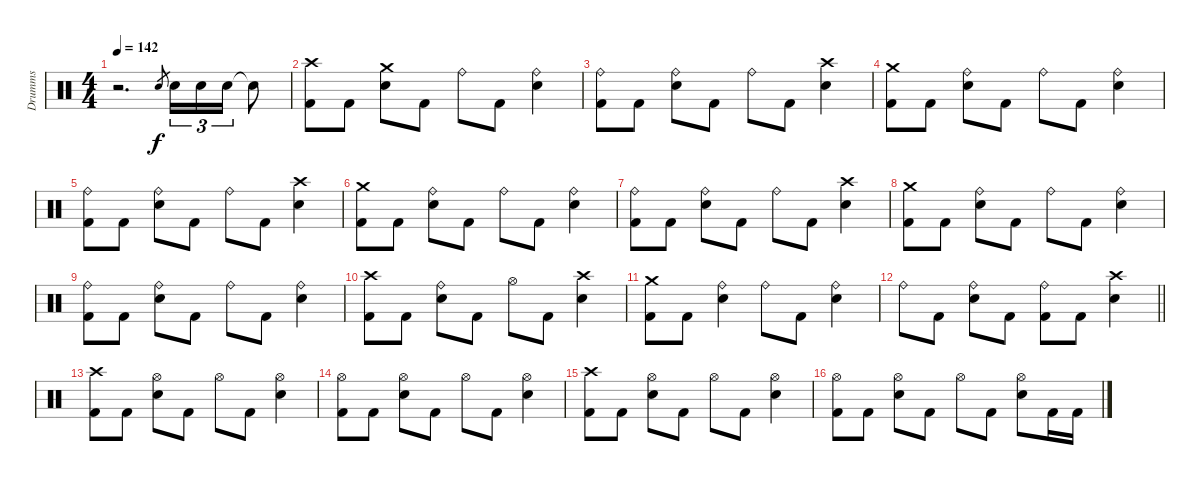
\track ("Drumms" "Drumms") {instrument percussion}
\staff {score}
\articulation defaults
\ts (4 4)
\tempo 142
\clef neutral
\ks c
r.2{d dy f} "Electric Snare (hit)".8{gr} "Electric Snare (hit)".16{tu (3 2)} "Electric Snare (hit)".16{tu (3 2)} "Electric Snare (hit)".16{tu (3 2)} "Snare (hit)"{t}.8 |
("Kick (hit) 2" "Crash high (hit)").8 "Kick (hit) 2".8 ("Electric Snare (hit)" "Crash medium (hit)").8 "Kick (hit) 2".8 "Ride (bell)".8 "Kick (hit) 2".8 ("Electric Snare (hit)" "Ride (bell)").4 |
("Ride (bell)" "Kick (hit) 2").8 "Kick (hit) 2".8 ("Ride (bell)" "Electric Snare (hit)").8 "Kick (hit) 2".8 "Ride (bell)".8 "Kick (hit) 2".8 ("Crash high (hit)" "Electric Snare (hit)").4 |
("Kick (hit) 2" "Crash medium (hit)").8 "Kick (hit) 2".8 ("Electric Snare (hit)" "Ride (bell)").8 "Kick (hit) 2".8 "Ride (bell)".8 "Kick (hit) 2".8 ("Electric Snare (hit)" "Ride (bell)").4 |
("Kick (hit) 2" "Ride (bell)").8 "Kick (hit) 2".8 ("Electric Snare (hit)" "Ride (bell)").8 "Kick (hit) 2".8 "Ride (bell)".8 "Kick (hit) 2".8 ("Electric Snare (hit)" "Crash high (hit)").4 |
("Kick (hit) 2" "Crash medium (hit)").8 "Kick (hit) 2".8 ("Electric Snare (hit)" "Ride (bell)").8 "Kick (hit) 2".8 "Ride (bell)".8 "Kick (hit) 2".8 ("Electric Snare (hit)" "Ride (bell)").4 |
("Kick (hit) 2" "Ride (bell)").8 "Kick (hit) 2".8 ("Electric Snare (hit)" "Ride (bell)").8 "Kick (hit) 2".8 "Ride (bell)".8 "Kick (hit) 2".8 ("Electric Snare (hit)" "Crash high (hit)").4 |
("Kick (hit) 2" "Crash medium (hit)").8 "Kick (hit) 2".8 ("Electric Snare (hit)" "Ride (bell)").8 "Kick (hit) 2".8 "Ride (bell)".8 "Kick (hit) 2".8 ("Electric Snare (hit)" "Ride (bell)").4 |
("Kick (hit) 2" "Ride (bell)").8 "Kick (hit) 2".8 ("Electric Snare (hit)" "Ride (bell)").8 "Kick (hit) 2".8 "Ride (bell)".8 "Kick (hit) 2".8 ("Electric Snare (hit)" "Ride (bell)").4 |
("Kick (hit) 2" "Crash high (hit)").8 "Kick (hit) 2".8 ("Electric Snare (hit)" "Ride (bell)").8 "Kick (hit) 2".8 "Hi-Hat (open)".8 "Kick (hit) 2".8 ("Electric Snare (hit)" "Crash high (hit)").4 |
("Kick (hit) 2" "Crash medium (hit)").8 "Kick (hit) 2".8 ("Electric Snare (hit)" "Ride (bell)").4 "Ride (bell)".8 "Kick (hit) 2".8 ("Electric Snare (hit)" "Ride (bell)").4 |
\barLineRight lightlight "Ride (bell)".8 "Kick (hit) 2".8
("Electric Snare (hit)" "Ride (bell)").8 "Kick (hit) 2".8 ("Kick (hit) 2" "Ride (bell)").8 "Kick (hit) 2".8 ("Electric Snare (hit)" "Crash high (hit)").4 |
\section ("" "")
("Kick (hit) 2" "Crash high (hit)").8 "Kick (hit) 2".8 ("Electric Snare (hit)" "Hi-Hat (open)").8 "Kick (hit) 2".8 "Hi-Hat (open)".8 "Kick (hit) 2".8 ("Electric Snare (hit)" "Hi-Hat (open)").4 |
("Kick (hit) 2" "Hi-Hat (open)").8 "Kick (hit) 2".8 ("Electric Snare (hit)" "Hi-Hat (open)").8 "Kick (hit) 2".8 "Hi-Hat (open)".8 "Kick (hit) 2".8 ("Electric Snare (hit)" "Hi-Hat (open)").4 |
("Kick (hit) 2" "Crash high (hit)").8 "Kick (hit) 2".8 ("Electric Snare (hit)" "Hi-Hat (open)").8 "Kick (hit) 2".8 "Hi-Hat (open)".8 "Kick (hit) 2".8 ("Electric Snare (hit)" "Hi-Hat (open)").4 |
("Kick (hit) 2" "Hi-Hat (open)").8 "Kick (hit) 2".8 ("Electric Snare (hit)" "Hi-Hat (open)").8 "Kick (hit) 2".8 "Hi-Hat (open)".8 "Kick (hit) 2".8 ("Electric Snare (hit)" "Hi-Hat (open)").8 "Kick (hit) 2".16 "Kick (hit) 2".16
